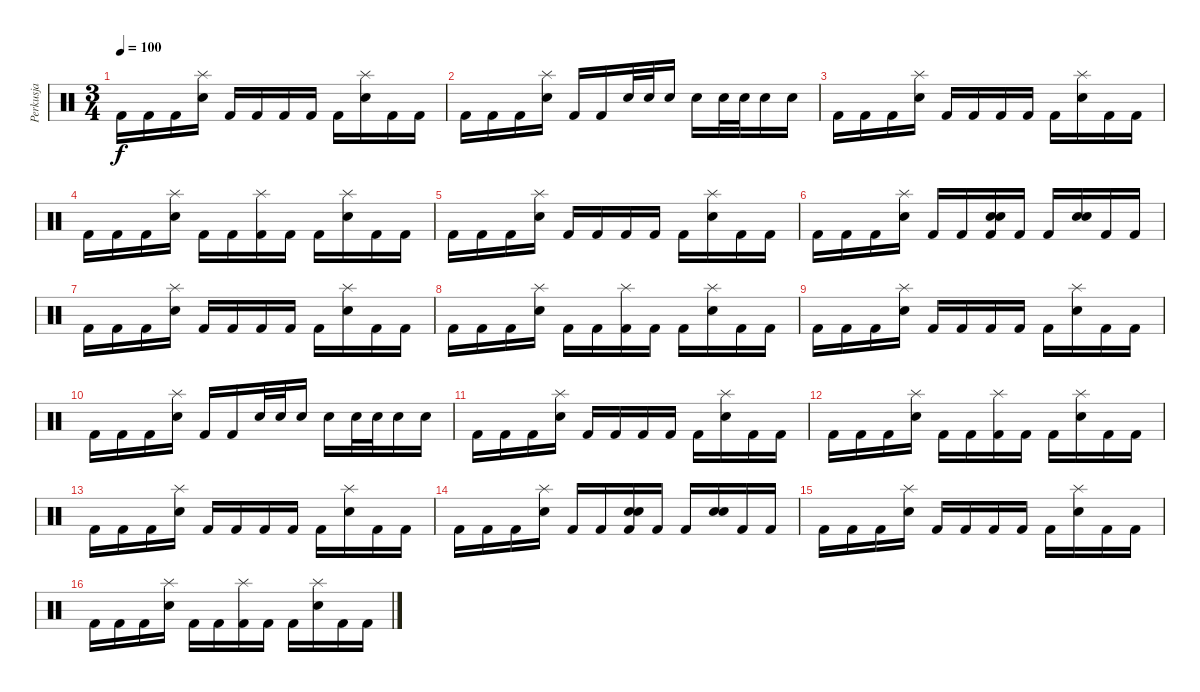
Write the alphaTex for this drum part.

\track ("Perkusja" "Perkusja") {instrument percussion}
\staff {score}
\articulation defaults
\ts (3 4)
\tempo 100
\clef neutral
\ks c "Kick (hit) 2".16{dy f} "Kick (hit) 2".16 "Kick (hit) 2".16
("Splash (hit)" "Snare (hit) 2").16 "Kick (hit) 2".16 "Kick (hit) 2".16 "Kick (hit) 2".16 "Kick (hit) 2".16 "Kick (hit) 2".16 ("Splash (hit)" "Snare (hit) 2").16 "Kick (hit) 2".16 "Kick (hit) 2".16 |
"Kick (hit) 2".16 "Kick (hit) 2".16 "Kick (hit) 2".16 ("Splash (hit)" "Snare (hit) 2").16 "Kick (hit) 2".16 "Kick (hit) 2".16 "Snare (hit) 2".32 "Snare (hit) 2".32 "Snare (hit) 2".16 "Snare (hit) 2".16 "Snare (hit) 2".32 "Snare (hit) 2".32 "Snare (hit) 2".16 "Snare (hit) 2".16 |
"Kick (hit) 2".16 "Kick (hit) 2".16 "Kick (hit) 2".16 ("Splash (hit)" "Snare (hit) 2").16 "Kick (hit) 2".16 "Kick (hit) 2".16 "Kick (hit) 2".16 "Kick (hit) 2".16 "Kick (hit) 2".16 ("Splash (hit)" "Snare (hit) 2").16 "Kick (hit) 2".16 "Kick (hit) 2".16 |
"Kick (hit) 2".16 "Kick (hit) 2".16 "Kick (hit) 2".16 ("Splash (hit)" "Snare (hit) 2").16 "Kick (hit) 2".16 "Kick (hit) 2".16 ("Splash (hit)" "Kick (hit) 2").16 "Kick (hit) 2".16 "Kick (hit) 2".16 ("Splash (hit)" "Snare (hit) 2").16 "Kick (hit) 2".16 "Kick (hit) 2".16 |
"Kick (hit) 2".16 "Kick (hit) 2".16 "Kick (hit) 2".16 ("Splash (hit)" "Snare (hit) 2").16 "Kick (hit) 2".16 "Kick (hit) 2".16 "Kick (hit) 2".16 "Kick (hit) 2".16 "Kick (hit) 2".16 ("Splash (hit)" "Snare (hit) 2").16 "Kick (hit) 2".16 "Kick (hit) 2".16 |
"Kick (hit) 2".16 "Kick (hit) 2".16 "Kick (hit) 2".16 ("Splash (hit)" "Snare (hit) 2").16 "Kick (hit) 2".16 "Kick (hit) 2".16 ("Snare (hit) 2" "Snare (hit) 2" "Kick (hit) 2").16 "Kick (hit) 2".16 "Kick (hit) 2".16 ("Snare (hit) 2" "Snare (hit) 2").16 "Kick (hit) 2".16 "Kick (hit) 2".16 |
"Kick (hit) 2".16 "Kick (hit) 2".16 "Kick (hit) 2".16 ("Splash (hit)" "Snare (hit) 2").16 "Kick (hit) 2".16 "Kick (hit) 2".16 "Kick (hit) 2".16 "Kick (hit) 2".16 "Kick (hit) 2".16 ("Splash (hit)" "Snare (hit) 2").16 "Kick (hit) 2".16 "Kick (hit) 2".16 |
"Kick (hit) 2".16 "Kick (hit) 2".16 "Kick (hit) 2".16 ("Splash (hit)" "Snare (hit) 2").16 "Kick (hit) 2".16 "Kick (hit) 2".16 ("Splash (hit)" "Kick (hit) 2").16 "Kick (hit) 2".16 "Kick (hit) 2".16 ("Splash (hit)" "Snare (hit) 2").16 "Kick (hit) 2".16 "Kick (hit) 2".16 |
"Kick (hit) 2".16 "Kick (hit) 2".16 "Kick (hit) 2".16 ("Splash (hit)" "Snare (hit) 2").16 "Kick (hit) 2".16 "Kick (hit) 2".16 "Kick (hit) 2".16 "Kick (hit) 2".16 "Kick (hit) 2".16 ("Splash (hit)" "Snare (hit) 2").16 "Kick (hit) 2".16 "Kick (hit) 2".16 |
"Kick (hit) 2".16 "Kick (hit) 2".16 "Kick (hit) 2".16 ("Splash (hit)" "Snare (hit) 2").16 "Kick (hit) 2".16 "Kick (hit) 2".16 "Snare (hit) 2".32 "Snare (hit) 2".32 "Snare (hit) 2".16 "Snare (hit) 2".16 "Snare (hit) 2".32 "Snare (hit) 2".32 "Snare (hit) 2".16 "Snare (hit) 2".16 |
"Kick (hit) 2".16 "Kick (hit) 2".16 "Kick (hit) 2".16 ("Splash (hit)" "Snare (hit) 2").16 "Kick (hit) 2".16 "Kick (hit) 2".16 "Kick (hit) 2".16 "Kick (hit) 2".16 "Kick (hit) 2".16 ("Splash (hit)" "Snare (hit) 2").16 "Kick (hit) 2".16 "Kick (hit) 2".16 |
"Kick (hit) 2".16 "Kick (hit) 2".16 "Kick (hit) 2".16 ("Splash (hit)" "Snare (hit) 2").16 "Kick (hit) 2".16 "Kick (hit) 2".16 ("Splash (hit)" "Kick (hit) 2").16 "Kick (hit) 2".16 "Kick (hit) 2".16 ("Splash (hit)" "Snare (hit) 2").16 "Kick (hit) 2".16 "Kick (hit) 2".16 |
"Kick (hit) 2".16 "Kick (hit) 2".16 "Kick (hit) 2".16 ("Splash (hit)" "Snare (hit) 2").16 "Kick (hit) 2".16 "Kick (hit) 2".16 "Kick (hit) 2".16 "Kick (hit) 2".16 "Kick (hit) 2".16 ("Splash (hit)" "Snare (hit) 2").16 "Kick (hit) 2".16 "Kick (hit) 2".16 |
"Kick (hit) 2".16 "Kick (hit) 2".16 "Kick (hit) 2".16 ("Splash (hit)" "Snare (hit) 2").16 "Kick (hit) 2".16 "Kick (hit) 2".16 ("Snare (hit) 2" "Snare (hit) 2" "Kick (hit) 2").16 "Kick (hit) 2".16 "Kick (hit) 2".16 ("Snare (hit) 2" "Snare (hit) 2").16 "Kick (hit) 2".16 "Kick (hit) 2".16 |
"Kick (hit) 2".16 "Kick (hit) 2".16 "Kick (hit) 2".16 ("Splash (hit)" "Snare (hit) 2").16 "Kick (hit) 2".16 "Kick (hit) 2".16 "Kick (hit) 2".16 "Kick (hit) 2".16 "Kick (hit) 2".16 ("Splash (hit)" "Snare (hit) 2").16 "Kick (hit) 2".16 "Kick (hit) 2".16 |
"Kick (hit) 2".16 "Kick (hit) 2".16 "Kick (hit) 2".16 ("Splash (hit)" "Snare (hit) 2").16 "Kick (hit) 2".16 "Kick (hit) 2".16 ("Splash (hit)" "Kick (hit) 2").16 "Kick (hit) 2".16 "Kick (hit) 2".16 ("Splash (hit)" "Snare (hit) 2").16 "Kick (hit) 2".16 "Kick (hit) 2".16
